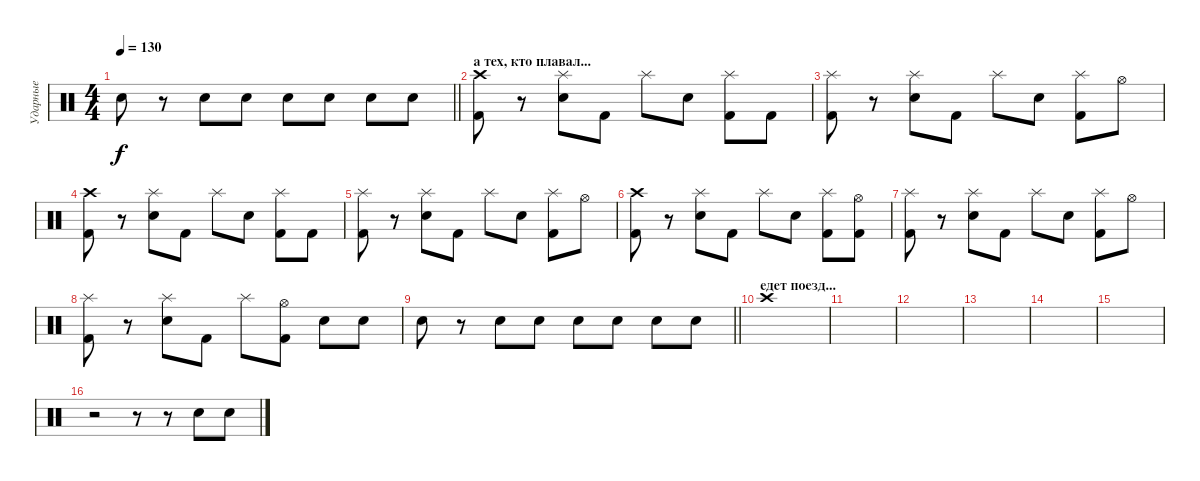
\track ("Ударные" "Ударные") {instrument percussion}
\staff {score}
\articulation defaults
\ts (4 4)
\tempo 130
\clef neutral
\barLineRight lightlight
\ks c "Snare (hit) 2".8{dy f}
r.8 "Snare (hit) 2".8 "Snare (hit) 2".8 "Snare (hit) 2".8 "Snare (hit) 2".8 "Snare (hit) 2".8 "Snare (hit) 2".8 |
\section ("" "а тех, кто плавал...")
("Crash high (hit)" "Kick (hit) 2").8 r.8 ("Splash (hit)" "Snare (hit) 2").8 "Kick (hit) 2".8 "Splash (hit)".8 "Snare (hit) 2".8 ("Splash (hit)" "Kick (hit) 2").8 "Kick (hit) 2".8 |
("Splash (hit)" "Kick (hit) 2").8 r.8 ("Splash (hit)" "Snare (hit) 2").8 "Kick (hit) 2".8 "Splash (hit)".8 "Snare (hit) 2".8 ("Splash (hit)" "Kick (hit) 2").8 "Hi-Hat (open)".8 |
("Crash high (hit)" "Kick (hit) 2").8 r.8 ("Splash (hit)" "Snare (hit) 2").8 "Kick (hit) 2".8 "Splash (hit)".8 "Snare (hit) 2".8 ("Splash (hit)" "Kick (hit) 2").8 "Kick (hit) 2".8 |
("Splash (hit)" "Kick (hit) 2").8 r.8 ("Splash (hit)" "Snare (hit) 2").8 "Kick (hit) 2".8 "Splash (hit)".8 "Snare (hit) 2".8 ("Splash (hit)" "Kick (hit) 2").8 "Hi-Hat (open)".8 |
("Crash high (hit)" "Kick (hit) 2").8 r.8 ("Splash (hit)" "Snare (hit) 2").8 "Kick (hit) 2".8 "Splash (hit)".8 "Snare (hit) 2".8 ("Splash (hit)" "Kick (hit) 2").8 ("Hi-Hat (open)" "Kick (hit) 2").8 |
("Splash (hit)" "Kick (hit) 2").8 r.8 ("Splash (hit)" "Snare (hit) 2").8 "Kick (hit) 2".8 "Splash (hit)".8 "Snare (hit) 2".8 ("Splash (hit)" "Kick (hit) 2").8 "Hi-Hat (open)".8 |
("Splash (hit)" "Kick (hit) 2").8 r.8 ("Splash (hit)" "Snare (hit) 2").8 "Kick (hit) 2".8 "Splash (hit)".8 ("Hi-Hat (open)" "Kick (hit) 2").8 "Snare (hit) 2".8 "Snare (hit) 2".8 |
\barLineRight lightlight "Snare (hit) 2".8
r.8 "Snare (hit) 2".8 "Snare (hit) 2".8 "Snare (hit) 2".8 "Snare (hit) 2".8 "Snare (hit) 2".8 "Snare (hit) 2".8 |
\section ("" "едет поезд...")
"Crash high (hit)".1 |
|
|
|
|
|
r.2 r.8 r.8 "Snare (hit) 2".8 "Snare (hit) 2".8
